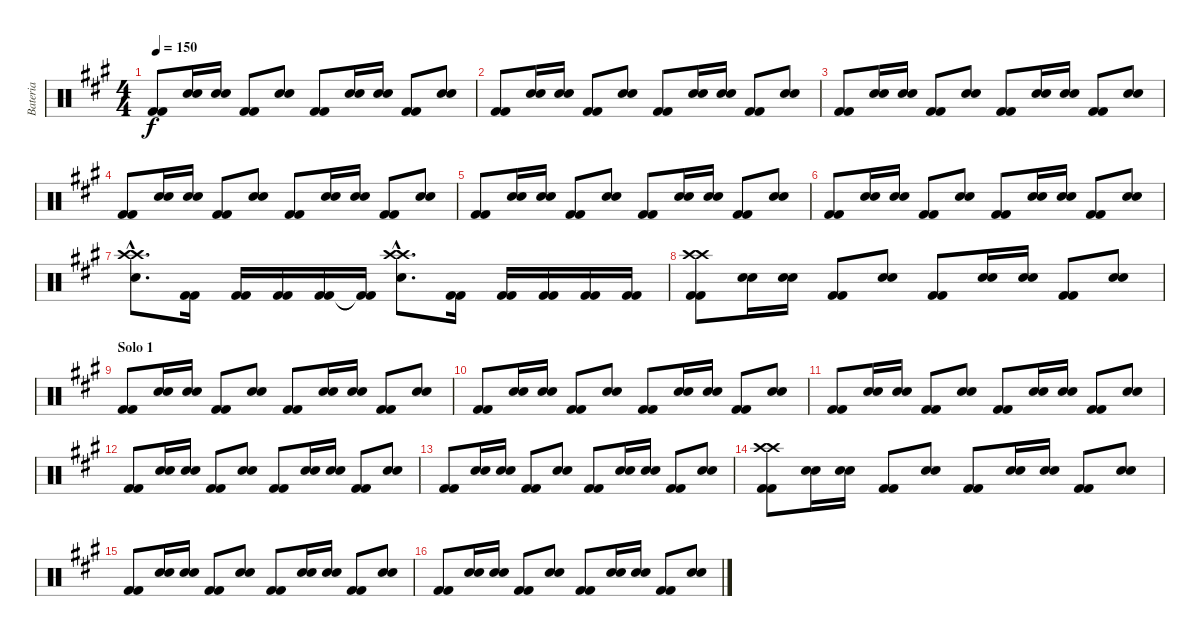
\track ("Bateria" "Bateria") {instrument percussion}
\staff {score}
\articulation defaults
\ts (4 4)
\tempo 150
\clef neutral
\ks a
("Kick (hit) 2" "Kick (hit) 2").8{dy f} ("Electric Snare (hit)" "Snare (hit) 2").16 ("Electric Snare (hit)" "Snare (hit) 2").16 ("Kick (hit) 2" "Kick (hit) 2").8 ("Electric Snare (hit)" "Snare (hit) 2").8 ("Kick (hit) 2" "Kick (hit) 2").8 ("Electric Snare (hit)" "Snare (hit) 2").16 ("Electric Snare (hit)" "Snare (hit) 2").16 ("Kick (hit) 2" "Kick (hit) 2").8 ("Electric Snare (hit)" "Snare (hit) 2").8 |
("Kick (hit) 2" "Kick (hit) 2").8 ("Electric Snare (hit)" "Snare (hit) 2").16 ("Electric Snare (hit)" "Snare (hit) 2").16 ("Kick (hit) 2" "Kick (hit) 2").8 ("Electric Snare (hit)" "Snare (hit) 2").8 ("Kick (hit) 2" "Kick (hit) 2").8 ("Electric Snare (hit)" "Snare (hit) 2").16 ("Electric Snare (hit)" "Snare (hit) 2").16 ("Kick (hit) 2" "Kick (hit) 2").8 ("Electric Snare (hit)" "Snare (hit) 2").8 |
("Kick (hit) 2" "Kick (hit) 2").8 ("Electric Snare (hit)" "Snare (hit) 2").16 ("Electric Snare (hit)" "Snare (hit) 2").16 ("Kick (hit) 2" "Kick (hit) 2").8 ("Electric Snare (hit)" "Snare (hit) 2").8 ("Kick (hit) 2" "Kick (hit) 2").8 ("Electric Snare (hit)" "Snare (hit) 2").16 ("Electric Snare (hit)" "Snare (hit) 2").16 ("Kick (hit) 2" "Kick (hit) 2").8 ("Electric Snare (hit)" "Snare (hit) 2").8 |
("Kick (hit) 2" "Kick (hit) 2").8 ("Electric Snare (hit)" "Snare (hit) 2").16 ("Electric Snare (hit)" "Snare (hit) 2").16 ("Kick (hit) 2" "Kick (hit) 2").8 ("Electric Snare (hit)" "Snare (hit) 2").8 ("Kick (hit) 2" "Kick (hit) 2").8 ("Electric Snare (hit)" "Snare (hit) 2").16 ("Electric Snare (hit)" "Snare (hit) 2").16 ("Kick (hit) 2" "Kick (hit) 2").8 ("Electric Snare (hit)" "Snare (hit) 2").8 |
("Kick (hit) 2" "Kick (hit) 2").8 ("Electric Snare (hit)" "Snare (hit) 2").16 ("Electric Snare (hit)" "Snare (hit) 2").16 ("Kick (hit) 2" "Kick (hit) 2").8 ("Electric Snare (hit)" "Snare (hit) 2").8 ("Kick (hit) 2" "Kick (hit) 2").8 ("Electric Snare (hit)" "Snare (hit) 2").16 ("Electric Snare (hit)" "Snare (hit) 2").16 ("Kick (hit) 2" "Kick (hit) 2").8 ("Electric Snare (hit)" "Snare (hit) 2").8 |
("Kick (hit) 2" "Kick (hit) 2").8 ("Electric Snare (hit)" "Snare (hit) 2").16 ("Electric Snare (hit)" "Snare (hit) 2").16 ("Kick (hit) 2" "Kick (hit) 2").8 ("Electric Snare (hit)" "Snare (hit) 2").8 ("Kick (hit) 2" "Kick (hit) 2").8 ("Electric Snare (hit)" "Snare (hit) 2").16 ("Electric Snare (hit)" "Snare (hit) 2").16 ("Kick (hit) 2" "Kick (hit) 2").8 ("Electric Snare (hit)" "Snare (hit) 2").8 |
("Crash high (hit)"{hac} "Crash high (hit)"{hac} "Electric Snare (hit)"{hac}).8{d} ("Kick (hit) 2" "Kick (hit) 2").16 ("Kick (hit) 2" "Kick (hit) 2").16 ("Kick (hit) 2" "Kick (hit) 2").16 ("Kick (hit) 2" "Kick (hit) 2").16 ("Kick (hit) 2"{t} "Kick (hit) 2"{t}).16 ("Crash high (hit)"{hac} "Crash high (hit)"{hac} "Electric Snare (hit)"{hac}).8{d} ("Kick (hit) 2" "Kick (hit) 2").16 ("Kick (hit) 2" "Kick (hit) 2").16 ("Kick (hit) 2" "Kick (hit) 2").16 ("Kick (hit) 2" "Kick (hit) 2").16 ("Kick (hit) 2" "Kick (hit) 2").16 |
("Crash high (hit)" "Crash high (hit)" "Kick (hit) 2" "Kick (hit) 2").8 ("Electric Snare (hit)" "Snare (hit) 2").16 ("Electric Snare (hit)" "Snare (hit) 2").16 ("Kick (hit) 2" "Kick (hit) 2").8 ("Electric Snare (hit)" "Snare (hit) 2").8 ("Kick (hit) 2" "Kick (hit) 2").8 ("Electric Snare (hit)" "Snare (hit) 2").16 ("Electric Snare (hit)" "Snare (hit) 2").16 ("Kick (hit) 2" "Kick (hit) 2").8 ("Electric Snare (hit)" "Snare (hit) 2").8 |
\section ("" "Solo 1")
("Kick (hit) 2" "Kick (hit) 2").8 ("Electric Snare (hit)" "Snare (hit) 2").16 ("Electric Snare (hit)" "Snare (hit) 2").16 ("Kick (hit) 2" "Kick (hit) 2").8 ("Electric Snare (hit)" "Snare (hit) 2").8 ("Kick (hit) 2" "Kick (hit) 2").8 ("Electric Snare (hit)" "Snare (hit) 2").16 ("Electric Snare (hit)" "Snare (hit) 2").16 ("Kick (hit) 2" "Kick (hit) 2").8 ("Electric Snare (hit)" "Snare (hit) 2").8 |
("Kick (hit) 2" "Kick (hit) 2").8 ("Electric Snare (hit)" "Snare (hit) 2").16 ("Electric Snare (hit)" "Snare (hit) 2").16 ("Kick (hit) 2" "Kick (hit) 2").8 ("Electric Snare (hit)" "Snare (hit) 2").8 ("Kick (hit) 2" "Kick (hit) 2").8 ("Electric Snare (hit)" "Snare (hit) 2").16 ("Electric Snare (hit)" "Snare (hit) 2").16 ("Kick (hit) 2" "Kick (hit) 2").8 ("Electric Snare (hit)" "Snare (hit) 2").8 |
("Kick (hit) 2" "Kick (hit) 2").8 ("Electric Snare (hit)" "Snare (hit) 2").16 ("Electric Snare (hit)" "Snare (hit) 2").16 ("Kick (hit) 2" "Kick (hit) 2").8 ("Electric Snare (hit)" "Snare (hit) 2").8 ("Kick (hit) 2" "Kick (hit) 2").8 ("Electric Snare (hit)" "Snare (hit) 2").16 ("Electric Snare (hit)" "Snare (hit) 2").16 ("Kick (hit) 2" "Kick (hit) 2").8 ("Electric Snare (hit)" "Snare (hit) 2").8 |
("Kick (hit) 2" "Kick (hit) 2").8 ("Electric Snare (hit)" "Snare (hit) 2").16 ("Electric Snare (hit)" "Snare (hit) 2").16 ("Kick (hit) 2" "Kick (hit) 2").8 ("Electric Snare (hit)" "Snare (hit) 2").8 ("Kick (hit) 2" "Kick (hit) 2").8 ("Electric Snare (hit)" "Snare (hit) 2").16 ("Electric Snare (hit)" "Snare (hit) 2").16 ("Kick (hit) 2" "Kick (hit) 2").8 ("Electric Snare (hit)" "Snare (hit) 2").8 |
("Kick (hit) 2" "Kick (hit) 2").8 ("Electric Snare (hit)" "Snare (hit) 2").16 ("Electric Snare (hit)" "Snare (hit) 2").16 ("Kick (hit) 2" "Kick (hit) 2").8 ("Electric Snare (hit)" "Snare (hit) 2").8 ("Kick (hit) 2" "Kick (hit) 2").8 ("Electric Snare (hit)" "Snare (hit) 2").16 ("Electric Snare (hit)" "Snare (hit) 2").16 ("Kick (hit) 2" "Kick (hit) 2").8 ("Electric Snare (hit)" "Snare (hit) 2").8 |
("Crash high (hit)" "Crash high (hit)" "Kick (hit) 2" "Kick (hit) 2").8 ("Electric Snare (hit)" "Snare (hit) 2").16 ("Electric Snare (hit)" "Snare (hit) 2").16 ("Kick (hit) 2" "Kick (hit) 2").8 ("Electric Snare (hit)" "Snare (hit) 2").8 ("Kick (hit) 2" "Kick (hit) 2").8 ("Electric Snare (hit)" "Snare (hit) 2").16 ("Electric Snare (hit)" "Snare (hit) 2").16 ("Kick (hit) 2" "Kick (hit) 2").8 ("Electric Snare (hit)" "Snare (hit) 2").8 |
("Kick (hit) 2" "Kick (hit) 2").8 ("Electric Snare (hit)" "Snare (hit) 2").16 ("Electric Snare (hit)" "Snare (hit) 2").16 ("Kick (hit) 2" "Kick (hit) 2").8 ("Electric Snare (hit)" "Snare (hit) 2").8 ("Kick (hit) 2" "Kick (hit) 2").8 ("Electric Snare (hit)" "Snare (hit) 2").16 ("Electric Snare (hit)" "Snare (hit) 2").16 ("Kick (hit) 2" "Kick (hit) 2").8 ("Electric Snare (hit)" "Snare (hit) 2").8 |
("Kick (hit) 2" "Kick (hit) 2").8 ("Electric Snare (hit)" "Snare (hit) 2").16 ("Electric Snare (hit)" "Snare (hit) 2").16 ("Kick (hit) 2" "Kick (hit) 2").8 ("Electric Snare (hit)" "Snare (hit) 2").8 ("Kick (hit) 2" "Kick (hit) 2").8 ("Electric Snare (hit)" "Snare (hit) 2").16 ("Electric Snare (hit)" "Snare (hit) 2").16 ("Kick (hit) 2" "Kick (hit) 2").8 ("Electric Snare (hit)" "Snare (hit) 2").8
